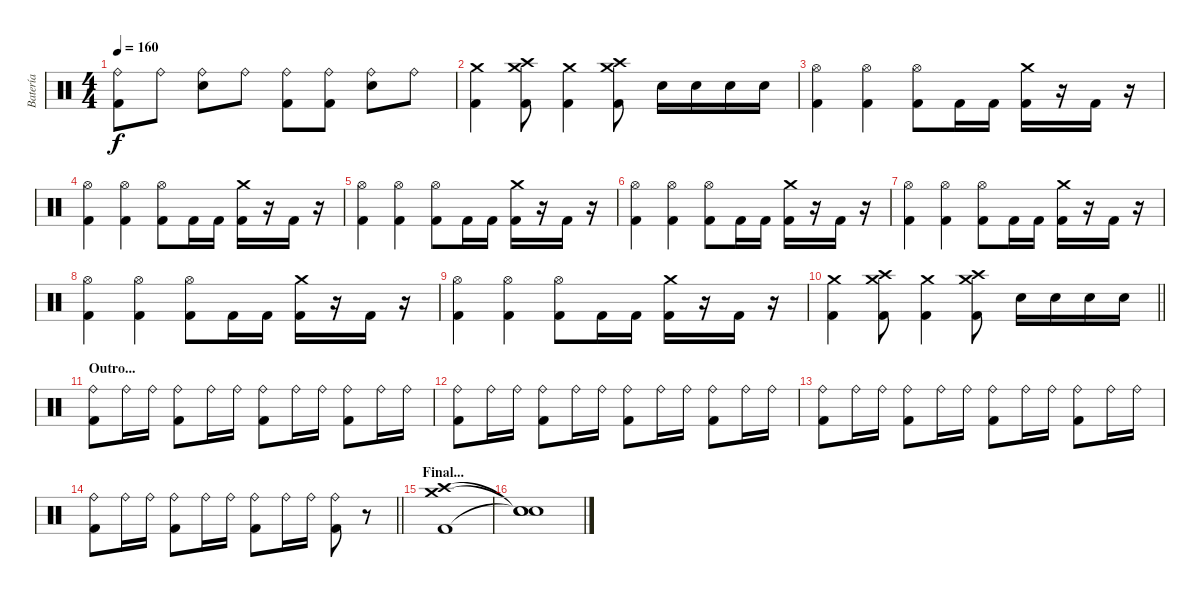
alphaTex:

\track ("Batería" "Batería") {instrument percussion}
\staff {score}
\articulation defaults
\ts (4 4)
\tempo 160
\clef neutral
\ks c
("Ride (bell)" "Kick (hit) 2").8{dy f} "Ride (bell)".8 ("Ride (bell)" "Snare (hit) 2").8 "Ride (bell)".8 ("Ride (bell)" "Kick (hit) 2").8 ("Ride (bell)" "Kick (hit) 2").8 ("Ride (bell)" "Snare (hit) 2").8 "Ride (bell)".8 |
("Crash medium (hit)" "Kick (hit) 2").4 ("Crash high (hit)" "Crash medium (hit)" "Kick (hit) 2").8 ("Crash medium (hit)" "Kick (hit) 2").4 ("Crash high (hit)" "Crash medium (hit)" "Kick (hit) 2").8 "Snare (hit) 2".16 "Snare (hit) 2".16 "Snare (hit) 2".16 "Snare (hit) 2".16 |
("Hi-Hat (open)" "Kick (hit) 2").4 ("Hi-Hat (open)" "Kick (hit) 2").4 ("Hi-Hat (open)" "Kick (hit) 2").8 "Kick (hit) 2".16 "Kick (hit) 2".16 ("Crash medium (hit)" "Kick (hit) 2").16 r.16 "Kick (hit) 2".16 r.16 |
("Hi-Hat (open)" "Kick (hit) 2").4 ("Hi-Hat (open)" "Kick (hit) 2").4 ("Hi-Hat (open)" "Kick (hit) 2").8 "Kick (hit) 2".16 "Kick (hit) 2".16 ("Crash medium (hit)" "Kick (hit) 2").16 r.16 "Kick (hit) 2".16 r.16 |
("Hi-Hat (open)" "Kick (hit) 2").4 ("Hi-Hat (open)" "Kick (hit) 2").4 ("Hi-Hat (open)" "Kick (hit) 2").8 "Kick (hit) 2".16 "Kick (hit) 2".16 ("Crash medium (hit)" "Kick (hit) 2").16 r.16 "Kick (hit) 2".16 r.16 |
("Hi-Hat (open)" "Kick (hit) 2").4 ("Hi-Hat (open)" "Kick (hit) 2").4 ("Hi-Hat (open)" "Kick (hit) 2").8 "Kick (hit) 2".16 "Kick (hit) 2".16 ("Crash medium (hit)" "Kick (hit) 2").16 r.16 "Kick (hit) 2".16 r.16 |
("Hi-Hat (open)" "Kick (hit) 2").4 ("Hi-Hat (open)" "Kick (hit) 2").4 ("Hi-Hat (open)" "Kick (hit) 2").8 "Kick (hit) 2".16 "Kick (hit) 2".16 ("Crash medium (hit)" "Kick (hit) 2").16 r.16 "Kick (hit) 2".16 r.16 |
("Hi-Hat (open)" "Kick (hit) 2").4 ("Hi-Hat (open)" "Kick (hit) 2").4 ("Hi-Hat (open)" "Kick (hit) 2").8 "Kick (hit) 2".16 "Kick (hit) 2".16 ("Crash medium (hit)" "Kick (hit) 2").16 r.16 "Kick (hit) 2".16 r.16 |
("Hi-Hat (open)" "Kick (hit) 2").4 ("Hi-Hat (open)" "Kick (hit) 2").4 ("Hi-Hat (open)" "Kick (hit) 2").8 "Kick (hit) 2".16 "Kick (hit) 2".16 ("Crash medium (hit)" "Kick (hit) 2").16 r.16 "Kick (hit) 2".16 r.16 |
\barLineRight lightlight
("Crash medium (hit)" "Kick (hit) 2").4 ("Crash high (hit)" "Crash medium (hit)" "Kick (hit) 2").8 ("Crash medium (hit)" "Kick (hit) 2").4 ("Crash high (hit)" "Crash medium (hit)" "Kick (hit) 2").8 "Snare (hit) 2".16 "Snare (hit) 2".16 "Snare (hit) 2".16 "Snare (hit) 2".16 |
\section ("" "Outro...")
("Ride (bell)" "Kick (hit) 2").8 "Ride (bell)".16 "Ride (bell)".16 ("Ride (bell)" "Kick (hit) 2").8 "Ride (bell)".16 "Ride (bell)".16 ("Ride (bell)" "Kick (hit) 2").8 "Ride (bell)".16 "Ride (bell)".16 ("Ride (bell)" "Kick (hit) 2").8 "Ride (bell)".16 "Ride (bell)".16 |
("Ride (bell)" "Kick (hit) 2").8 "Ride (bell)".16 "Ride (bell)".16 ("Ride (bell)" "Kick (hit) 2").8 "Ride (bell)".16 "Ride (bell)".16 ("Ride (bell)" "Kick (hit) 2").8 "Ride (bell)".16 "Ride (bell)".16 ("Ride (bell)" "Kick (hit) 2").8 "Ride (bell)".16 "Ride (bell)".16 |
("Ride (bell)" "Kick (hit) 2").8 "Ride (bell)".16 "Ride (bell)".16 ("Ride (bell)" "Kick (hit) 2").8 "Ride (bell)".16 "Ride (bell)".16 ("Ride (bell)" "Kick (hit) 2").8 "Ride (bell)".16 "Ride (bell)".16 ("Ride (bell)" "Kick (hit) 2").8 "Ride (bell)".16 "Ride (bell)".16 |
\barLineRight lightlight
("Ride (bell)" "Kick (hit) 2").8 "Ride (bell)".16 "Ride (bell)".16 ("Ride (bell)" "Kick (hit) 2").8 "Ride (bell)".16 "Ride (bell)".16 ("Ride (bell)" "Kick (hit) 2").8 "Ride (bell)".16 "Ride (bell)".16 ("Ride (bell)" "Kick (hit) 2").8 r.8 |
\section ("" "Final...")
("Crash high (hit)" "Crash medium (hit)" "Kick (hit) 2").1 |
("Snare (hit)"{t} "Snare (hit)"{t} "Snare (hit)"{t}).1{volume 0}
